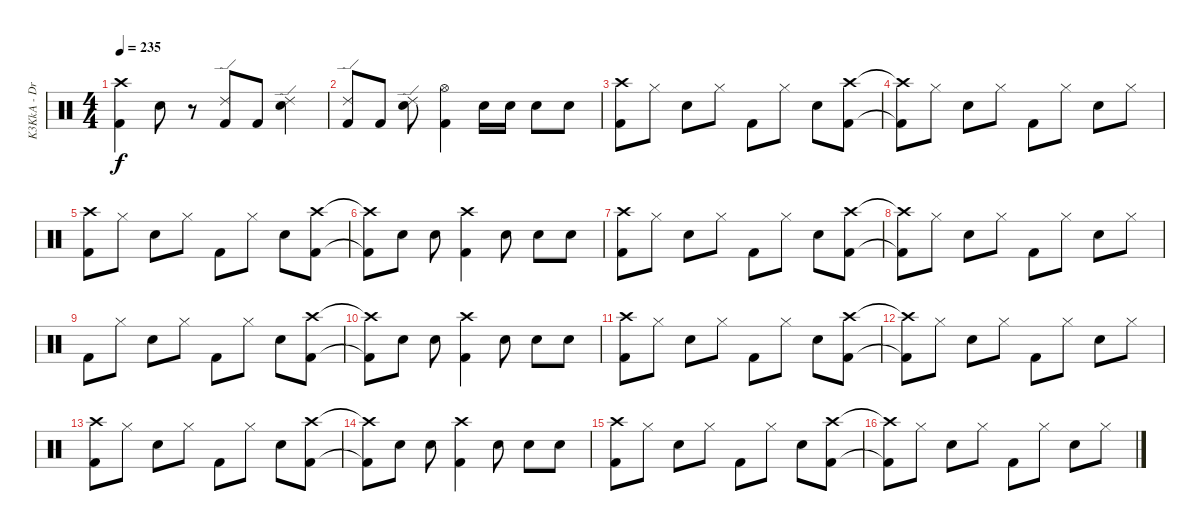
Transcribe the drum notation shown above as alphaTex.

\track ("K3KkA - Drums" "K3KkA - Dr") {instrument percussion}
\staff {score}
\articulation defaults
\ts (4 4)
\tempo 235
\clef neutral
\ks c
("Crash high (hit)" "Kick (hit) 2").4{dy f volume 13} "Electric Snare (hit)".8 r.8 ("Ride (edge) 2" "Kick (hit) 2").8 "Kick (hit) 2".8 ("Ride (edge) 2" "Electric Snare (hit)").4 |
("Ride (edge) 2" "Kick (hit) 2").8 "Kick (hit) 2".8 ("Ride (edge) 2" "Electric Snare (hit)").8 ("Hi-Hat (open)" "Kick (hit) 2").4 "Snare (hit) 2".16 "Snare (hit) 2".16 "Snare (hit) 2".8 "Snare (hit) 2".8 |
("Crash high (hit)" "Kick (hit) 2").8 "Hi-Hat (closed)".8 "Snare (hit) 2".8 "Hi-Hat (closed)".8 "Kick (hit) 2".8 "Hi-Hat (closed)".8 "Snare (hit) 2".8 ("Crash high (hit)" "Kick (hit) 2").8 |
("Crash high (hit)"{t} "Kick (hit) 2"{t}).8 "Hi-Hat (closed)".8 "Snare (hit) 2".8 "Hi-Hat (closed)".8 "Kick (hit) 2".8 "Hi-Hat (closed)".8 "Snare (hit) 2".8 "Hi-Hat (closed)".8 |
("Crash high (hit)" "Kick (hit) 2").8 "Hi-Hat (closed)".8 "Snare (hit) 2".8 "Hi-Hat (closed)".8 "Kick (hit) 2".8 "Hi-Hat (closed)".8 "Snare (hit) 2".8 ("Crash high (hit)" "Kick (hit) 2").8 |
("Crash high (hit)"{t} "Kick (hit) 2"{t}).8 "Snare (hit) 2".8 "Snare (hit) 2".8 ("Crash high (hit)" "Kick (hit) 2").4 "Snare (hit) 2".8 "Snare (hit) 2".8 "Snare (hit) 2".8 |
("Crash high (hit)" "Kick (hit) 2").8 "Hi-Hat (closed)".8 "Snare (hit) 2".8 "Hi-Hat (closed)".8 "Kick (hit) 2".8 "Hi-Hat (closed)".8 "Snare (hit) 2".8 ("Crash high (hit)" "Kick (hit) 2").8 |
("Crash high (hit)"{t} "Kick (hit) 2"{t}).8 "Hi-Hat (closed)".8 "Snare (hit) 2".8 "Hi-Hat (closed)".8 "Kick (hit) 2".8 "Hi-Hat (closed)".8 "Snare (hit) 2".8 "Hi-Hat (closed)".8 |
"Kick (hit) 2".8 "Hi-Hat (closed)".8 "Snare (hit) 2".8 "Hi-Hat (closed)".8 "Kick (hit) 2".8 "Hi-Hat (closed)".8 "Snare (hit) 2".8 ("Crash high (hit)" "Kick (hit) 2").8 |
("Crash high (hit)"{t} "Kick (hit) 2"{t}).8 "Snare (hit) 2".8 "Snare (hit) 2".8 ("Crash high (hit)" "Kick (hit) 2").4 "Snare (hit) 2".8 "Snare (hit) 2".8 "Snare (hit) 2".8 |
("Crash high (hit)" "Kick (hit) 2").8 "Hi-Hat (closed)".8 "Snare (hit) 2".8 "Hi-Hat (closed)".8 "Kick (hit) 2".8 "Hi-Hat (closed)".8 "Snare (hit) 2".8 ("Crash high (hit)" "Kick (hit) 2").8 |
("Crash high (hit)"{t} "Kick (hit) 2"{t}).8 "Hi-Hat (closed)".8 "Snare (hit) 2".8 "Hi-Hat (closed)".8 "Kick (hit) 2".8 "Hi-Hat (closed)".8 "Snare (hit) 2".8 "Hi-Hat (closed)".8 |
("Crash high (hit)" "Kick (hit) 2").8 "Hi-Hat (closed)".8 "Snare (hit) 2".8 "Hi-Hat (closed)".8 "Kick (hit) 2".8 "Hi-Hat (closed)".8 "Snare (hit) 2".8 ("Crash high (hit)" "Kick (hit) 2").8 |
("Crash high (hit)"{t} "Kick (hit) 2"{t}).8 "Snare (hit) 2".8 "Snare (hit) 2".8 ("Crash high (hit)" "Kick (hit) 2").4 "Snare (hit) 2".8 "Snare (hit) 2".8 "Snare (hit) 2".8 |
("Crash high (hit)" "Kick (hit) 2").8 "Hi-Hat (closed)".8 "Snare (hit) 2".8 "Hi-Hat (closed)".8 "Kick (hit) 2".8 "Hi-Hat (closed)".8 "Snare (hit) 2".8 ("Crash high (hit)" "Kick (hit) 2").8 |
("Crash high (hit)"{t} "Kick (hit) 2"{t}).8 "Hi-Hat (closed)".8 "Snare (hit) 2".8 "Hi-Hat (closed)".8 "Kick (hit) 2".8 "Hi-Hat (closed)".8 "Snare (hit) 2".8 "Hi-Hat (closed)".8
